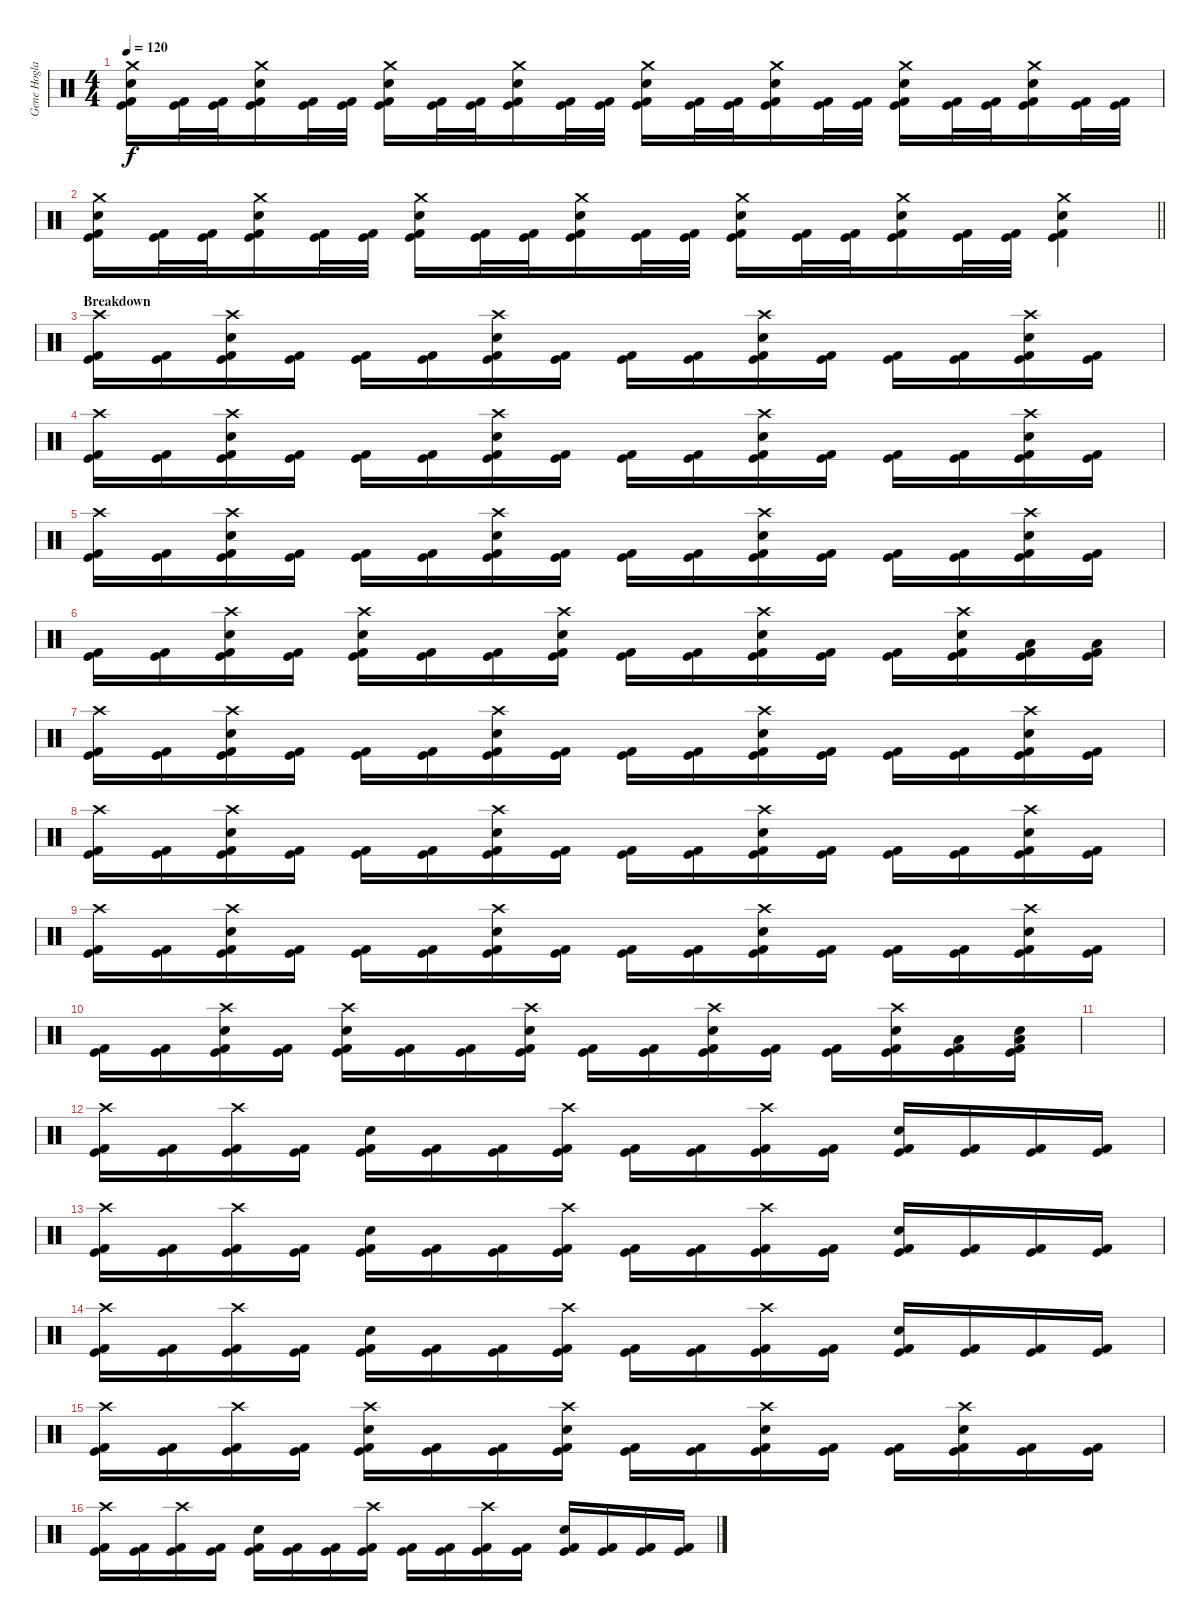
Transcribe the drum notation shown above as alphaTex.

\track ("Gene Hogland" "Gene Hogla") {instrument percussion}
\staff {score}
\articulation defaults
\ts (4 4)
\tempo 120
\clef neutral
\ks c
("Crash medium (hit)" "Electric Snare (hit)" "Kick (hit)" "Kick (hit) 2").16{dy f} ("Kick (hit)" "Kick (hit) 2").32 ("Kick (hit)" "Kick (hit) 2").32 ("Crash medium (hit)" "Electric Snare (hit)" "Kick (hit)" "Kick (hit) 2").16 ("Kick (hit)" "Kick (hit) 2").32 ("Kick (hit)" "Kick (hit) 2").32 ("Crash medium (hit)" "Electric Snare (hit)" "Kick (hit)" "Kick (hit) 2").16 ("Kick (hit)" "Kick (hit) 2").32 ("Kick (hit)" "Kick (hit) 2").32 ("Crash medium (hit)" "Electric Snare (hit)" "Kick (hit)" "Kick (hit) 2").16 ("Kick (hit)" "Kick (hit) 2").32 ("Kick (hit)" "Kick (hit) 2").32 ("Crash medium (hit)" "Electric Snare (hit)" "Kick (hit)" "Kick (hit) 2").16 ("Kick (hit)" "Kick (hit) 2").32 ("Kick (hit)" "Kick (hit) 2").32 ("Crash medium (hit)" "Electric Snare (hit)" "Kick (hit)" "Kick (hit) 2").16 ("Kick (hit)" "Kick (hit) 2").32 ("Kick (hit)" "Kick (hit) 2").32 ("Crash medium (hit)" "Electric Snare (hit)" "Kick (hit)" "Kick (hit) 2").16 ("Kick (hit)" "Kick (hit) 2").32 ("Kick (hit)" "Kick (hit) 2").32 ("Crash medium (hit)" "Electric Snare (hit)" "Kick (hit)" "Kick (hit) 2").16 ("Kick (hit)" "Kick (hit) 2").32 ("Kick (hit)" "Kick (hit) 2").32 |
\barLineRight lightlight
("Crash medium (hit)" "Electric Snare (hit)" "Kick (hit)" "Kick (hit) 2").16 ("Kick (hit)" "Kick (hit) 2").32 ("Kick (hit)" "Kick (hit) 2").32 ("Crash medium (hit)" "Electric Snare (hit)" "Kick (hit)" "Kick (hit) 2").16 ("Kick (hit)" "Kick (hit) 2").32 ("Kick (hit)" "Kick (hit) 2").32 ("Crash medium (hit)" "Electric Snare (hit)" "Kick (hit)" "Kick (hit) 2").16 ("Kick (hit)" "Kick (hit) 2").32 ("Kick (hit)" "Kick (hit) 2").32 ("Crash medium (hit)" "Electric Snare (hit)" "Kick (hit)" "Kick (hit) 2").16 ("Kick (hit)" "Kick (hit) 2").32 ("Kick (hit)" "Kick (hit) 2").32 ("Crash medium (hit)" "Electric Snare (hit)" "Kick (hit)" "Kick (hit) 2").16 ("Kick (hit)" "Kick (hit) 2").32 ("Kick (hit)" "Kick (hit) 2").32 ("Crash medium (hit)" "Electric Snare (hit)" "Kick (hit)" "Kick (hit) 2").16 ("Kick (hit)" "Kick (hit) 2").32 ("Kick (hit)" "Kick (hit) 2").32 ("Crash medium (hit)" "Electric Snare (hit)" "Kick (hit)" "Kick (hit) 2").4 |
\section ("" "Breakdown")
("Crash high (hit)" "Kick (hit)" "Kick (hit) 2").16 ("Kick (hit)" "Kick (hit) 2").16 ("Crash high (hit)" "Electric Snare (hit)" "Kick (hit)" "Kick (hit) 2").16 ("Kick (hit)" "Kick (hit) 2").16 ("Kick (hit)" "Kick (hit) 2").16 ("Kick (hit)" "Kick (hit) 2").16 ("Crash high (hit)" "Electric Snare (hit)" "Kick (hit)" "Kick (hit) 2").16 ("Kick (hit)" "Kick (hit) 2").16 ("Kick (hit)" "Kick (hit) 2").16 ("Kick (hit)" "Kick (hit) 2").16 ("Crash high (hit)" "Electric Snare (hit)" "Kick (hit)" "Kick (hit) 2").16 ("Kick (hit)" "Kick (hit) 2").16 ("Kick (hit)" "Kick (hit) 2").16 ("Kick (hit)" "Kick (hit) 2").16 ("Crash high (hit)" "Electric Snare (hit)" "Kick (hit)" "Kick (hit) 2").16 ("Kick (hit)" "Kick (hit) 2").16 |
("Crash high (hit)" "Kick (hit)" "Kick (hit) 2").16 ("Kick (hit)" "Kick (hit) 2").16 ("Crash high (hit)" "Electric Snare (hit)" "Kick (hit)" "Kick (hit) 2").16 ("Kick (hit)" "Kick (hit) 2").16 ("Kick (hit)" "Kick (hit) 2").16 ("Kick (hit)" "Kick (hit) 2").16 ("Crash high (hit)" "Electric Snare (hit)" "Kick (hit)" "Kick (hit) 2").16 ("Kick (hit)" "Kick (hit) 2").16 ("Kick (hit)" "Kick (hit) 2").16 ("Kick (hit)" "Kick (hit) 2").16 ("Crash high (hit)" "Electric Snare (hit)" "Kick (hit)" "Kick (hit) 2").16 ("Kick (hit)" "Kick (hit) 2").16 ("Kick (hit)" "Kick (hit) 2").16 ("Kick (hit)" "Kick (hit) 2").16 ("Crash high (hit)" "Electric Snare (hit)" "Kick (hit)" "Kick (hit) 2").16 ("Kick (hit)" "Kick (hit) 2").16 |
("Crash high (hit)" "Kick (hit)" "Kick (hit) 2").16 ("Kick (hit)" "Kick (hit) 2").16 ("Crash high (hit)" "Electric Snare (hit)" "Kick (hit)" "Kick (hit) 2").16 ("Kick (hit)" "Kick (hit) 2").16 ("Kick (hit)" "Kick (hit) 2").16 ("Kick (hit)" "Kick (hit) 2").16 ("Crash high (hit)" "Electric Snare (hit)" "Kick (hit)" "Kick (hit) 2").16 ("Kick (hit)" "Kick (hit) 2").16 ("Kick (hit)" "Kick (hit) 2").16 ("Kick (hit)" "Kick (hit) 2").16 ("Crash high (hit)" "Electric Snare (hit)" "Kick (hit)" "Kick (hit) 2").16 ("Kick (hit)" "Kick (hit) 2").16 ("Kick (hit)" "Kick (hit) 2").16 ("Kick (hit)" "Kick (hit) 2").16 ("Crash high (hit)" "Electric Snare (hit)" "Kick (hit)" "Kick (hit) 2").16 ("Kick (hit)" "Kick (hit) 2").16 |
("Kick (hit)" "Kick (hit) 2").16 ("Kick (hit)" "Kick (hit) 2").16 ("Crash high (hit)" "Electric Snare (hit)" "Kick (hit)" "Kick (hit) 2").16 ("Kick (hit)" "Kick (hit) 2").16 ("Crash high (hit)" "Electric Snare (hit)" "Kick (hit)" "Kick (hit) 2").16 ("Kick (hit)" "Kick (hit) 2").16 ("Kick (hit)" "Kick (hit) 2").16 ("Crash high (hit)" "Electric Snare (hit)" "Kick (hit)" "Kick (hit) 2").16 ("Kick (hit)" "Kick (hit) 2").16 ("Kick (hit)" "Kick (hit) 2").16 ("Crash high (hit)" "Electric Snare (hit)" "Kick (hit)" "Kick (hit) 2").16 ("Kick (hit)" "Kick (hit) 2").16 ("Kick (hit)" "Kick (hit) 2").16 ("Crash high (hit)" "Electric Snare (hit)" "Kick (hit)" "Kick (hit) 2").16 ("Low Floor Tom (hit)" "Kick (hit)" "Kick (hit) 2").16 ("Low Floor Tom (hit)" "Kick (hit)" "Kick (hit) 2").16 |
("Crash high (hit)" "Kick (hit)" "Kick (hit) 2").16 ("Kick (hit)" "Kick (hit) 2").16 ("Crash high (hit)" "Electric Snare (hit)" "Kick (hit)" "Kick (hit) 2").16 ("Kick (hit)" "Kick (hit) 2").16 ("Kick (hit)" "Kick (hit) 2").16 ("Kick (hit)" "Kick (hit) 2").16 ("Crash high (hit)" "Electric Snare (hit)" "Kick (hit)" "Kick (hit) 2").16 ("Kick (hit)" "Kick (hit) 2").16 ("Kick (hit)" "Kick (hit) 2").16 ("Kick (hit)" "Kick (hit) 2").16 ("Crash high (hit)" "Electric Snare (hit)" "Kick (hit)" "Kick (hit) 2").16 ("Kick (hit)" "Kick (hit) 2").16 ("Kick (hit)" "Kick (hit) 2").16 ("Kick (hit)" "Kick (hit) 2").16 ("Crash high (hit)" "Electric Snare (hit)" "Kick (hit)" "Kick (hit) 2").16 ("Kick (hit)" "Kick (hit) 2").16 |
("Crash high (hit)" "Kick (hit)" "Kick (hit) 2").16 ("Kick (hit)" "Kick (hit) 2").16 ("Crash high (hit)" "Electric Snare (hit)" "Kick (hit)" "Kick (hit) 2").16 ("Kick (hit)" "Kick (hit) 2").16 ("Kick (hit)" "Kick (hit) 2").16 ("Kick (hit)" "Kick (hit) 2").16 ("Crash high (hit)" "Electric Snare (hit)" "Kick (hit)" "Kick (hit) 2").16 ("Kick (hit)" "Kick (hit) 2").16 ("Kick (hit)" "Kick (hit) 2").16 ("Kick (hit)" "Kick (hit) 2").16 ("Crash high (hit)" "Electric Snare (hit)" "Kick (hit)" "Kick (hit) 2").16 ("Kick (hit)" "Kick (hit) 2").16 ("Kick (hit)" "Kick (hit) 2").16 ("Kick (hit)" "Kick (hit) 2").16 ("Crash high (hit)" "Electric Snare (hit)" "Kick (hit)" "Kick (hit) 2").16 ("Kick (hit)" "Kick (hit) 2").16 |
("Crash high (hit)" "Kick (hit)" "Kick (hit) 2").16 ("Kick (hit)" "Kick (hit) 2").16 ("Crash high (hit)" "Electric Snare (hit)" "Kick (hit)" "Kick (hit) 2").16 ("Kick (hit)" "Kick (hit) 2").16 ("Kick (hit)" "Kick (hit) 2").16 ("Kick (hit)" "Kick (hit) 2").16 ("Crash high (hit)" "Electric Snare (hit)" "Kick (hit)" "Kick (hit) 2").16 ("Kick (hit)" "Kick (hit) 2").16 ("Kick (hit)" "Kick (hit) 2").16 ("Kick (hit)" "Kick (hit) 2").16 ("Crash high (hit)" "Electric Snare (hit)" "Kick (hit)" "Kick (hit) 2").16 ("Kick (hit)" "Kick (hit) 2").16 ("Kick (hit)" "Kick (hit) 2").16 ("Kick (hit)" "Kick (hit) 2").16 ("Crash high (hit)" "Electric Snare (hit)" "Kick (hit)" "Kick (hit) 2").16 ("Kick (hit)" "Kick (hit) 2").16 |
("Kick (hit)" "Kick (hit) 2").16 ("Kick (hit)" "Kick (hit) 2").16 ("Crash high (hit)" "Electric Snare (hit)" "Kick (hit)" "Kick (hit) 2").16 ("Kick (hit)" "Kick (hit) 2").16 ("Crash high (hit)" "Electric Snare (hit)" "Kick (hit)" "Kick (hit) 2").16 ("Kick (hit)" "Kick (hit) 2").16 ("Kick (hit)" "Kick (hit) 2").16 ("Crash high (hit)" "Electric Snare (hit)" "Kick (hit)" "Kick (hit) 2").16 ("Kick (hit)" "Kick (hit) 2").16 ("Kick (hit)" "Kick (hit) 2").16 ("Crash high (hit)" "Electric Snare (hit)" "Kick (hit)" "Kick (hit) 2").16 ("Kick (hit)" "Kick (hit) 2").16 ("Kick (hit)" "Kick (hit) 2").16 ("Crash high (hit)" "Electric Snare (hit)" "Kick (hit)" "Kick (hit) 2").16 ("Low Floor Tom (hit)" "Kick (hit)" "Kick (hit) 2").16 ("Electric Snare (hit)" "Low Floor Tom (hit)" "Kick (hit)" "Kick (hit) 2").16 |
|
("Crash high (hit)" "Kick (hit)" "Kick (hit) 2").16 ("Kick (hit)" "Kick (hit) 2").16 ("Crash high (hit)" "Kick (hit)" "Kick (hit) 2").16 ("Kick (hit)" "Kick (hit) 2").16 ("Electric Snare (hit)" "Kick (hit)" "Kick (hit) 2").16 ("Kick (hit)" "Kick (hit) 2").16 ("Kick (hit)" "Kick (hit) 2").16 ("Crash high (hit)" "Kick (hit)" "Kick (hit) 2").16 ("Kick (hit)" "Kick (hit) 2").16 ("Kick (hit)" "Kick (hit) 2").16 ("Crash high (hit)" "Kick (hit)" "Kick (hit) 2").16 ("Kick (hit)" "Kick (hit) 2").16 ("Electric Snare (hit)" "Kick (hit)" "Kick (hit) 2").16 ("Kick (hit)" "Kick (hit) 2").16 ("Kick (hit)" "Kick (hit) 2").16 ("Kick (hit)" "Kick (hit) 2").16 |
("Crash high (hit)" "Kick (hit)" "Kick (hit) 2").16 ("Kick (hit)" "Kick (hit) 2").16 ("Crash high (hit)" "Kick (hit)" "Kick (hit) 2").16 ("Kick (hit)" "Kick (hit) 2").16 ("Electric Snare (hit)" "Kick (hit)" "Kick (hit) 2").16 ("Kick (hit)" "Kick (hit) 2").16 ("Kick (hit)" "Kick (hit) 2").16 ("Crash high (hit)" "Kick (hit)" "Kick (hit) 2").16 ("Kick (hit)" "Kick (hit) 2").16 ("Kick (hit)" "Kick (hit) 2").16 ("Crash high (hit)" "Kick (hit)" "Kick (hit) 2").16 ("Kick (hit)" "Kick (hit) 2").16 ("Electric Snare (hit)" "Kick (hit)" "Kick (hit) 2").16 ("Kick (hit)" "Kick (hit) 2").16 ("Kick (hit)" "Kick (hit) 2").16 ("Kick (hit)" "Kick (hit) 2").16 |
("Crash high (hit)" "Kick (hit)" "Kick (hit) 2").16 ("Kick (hit)" "Kick (hit) 2").16 ("Crash high (hit)" "Kick (hit)" "Kick (hit) 2").16 ("Kick (hit)" "Kick (hit) 2").16 ("Electric Snare (hit)" "Kick (hit)" "Kick (hit) 2").16 ("Kick (hit)" "Kick (hit) 2").16 ("Kick (hit)" "Kick (hit) 2").16 ("Crash high (hit)" "Kick (hit)" "Kick (hit) 2").16 ("Kick (hit)" "Kick (hit) 2").16 ("Kick (hit)" "Kick (hit) 2").16 ("Crash high (hit)" "Kick (hit)" "Kick (hit) 2").16 ("Kick (hit)" "Kick (hit) 2").16 ("Electric Snare (hit)" "Kick (hit)" "Kick (hit) 2").16 ("Kick (hit)" "Kick (hit) 2").16 ("Kick (hit)" "Kick (hit) 2").16 ("Kick (hit)" "Kick (hit) 2").16 |
("Crash high (hit)" "Kick (hit)" "Kick (hit) 2").16 ("Kick (hit)" "Kick (hit) 2").16 ("Crash high (hit)" "Kick (hit)" "Kick (hit) 2").16 ("Kick (hit)" "Kick (hit) 2").16 ("Crash high (hit)" "Electric Snare (hit)" "Kick (hit)" "Kick (hit) 2").16 ("Kick (hit)" "Kick (hit) 2").16 ("Kick (hit)" "Kick (hit) 2").16 ("Crash high (hit)" "Electric Snare (hit)" "Kick (hit)" "Kick (hit) 2").16 ("Kick (hit)" "Kick (hit) 2").16 ("Kick (hit)" "Kick (hit) 2").16 ("Crash high (hit)" "Electric Snare (hit)" "Kick (hit)" "Kick (hit) 2").16 ("Kick (hit)" "Kick (hit) 2").16 ("Kick (hit)" "Kick (hit) 2").16 ("Crash high (hit)" "Electric Snare (hit)" "Kick (hit)" "Kick (hit) 2").16 ("Kick (hit)" "Kick (hit) 2").16 ("Kick (hit)" "Kick (hit) 2").16 |
("Crash high (hit)" "Kick (hit)" "Kick (hit) 2").16 ("Kick (hit)" "Kick (hit) 2").16 ("Crash high (hit)" "Kick (hit)" "Kick (hit) 2").16 ("Kick (hit)" "Kick (hit) 2").16 ("Electric Snare (hit)" "Kick (hit)" "Kick (hit) 2").16 ("Kick (hit)" "Kick (hit) 2").16 ("Kick (hit)" "Kick (hit) 2").16 ("Crash high (hit)" "Kick (hit)" "Kick (hit) 2").16 ("Kick (hit)" "Kick (hit) 2").16 ("Kick (hit)" "Kick (hit) 2").16 ("Crash high (hit)" "Kick (hit)" "Kick (hit) 2").16 ("Kick (hit)" "Kick (hit) 2").16 ("Electric Snare (hit)" "Kick (hit)" "Kick (hit) 2").16 ("Kick (hit)" "Kick (hit) 2").16 ("Kick (hit)" "Kick (hit) 2").16 ("Kick (hit)" "Kick (hit) 2").16
